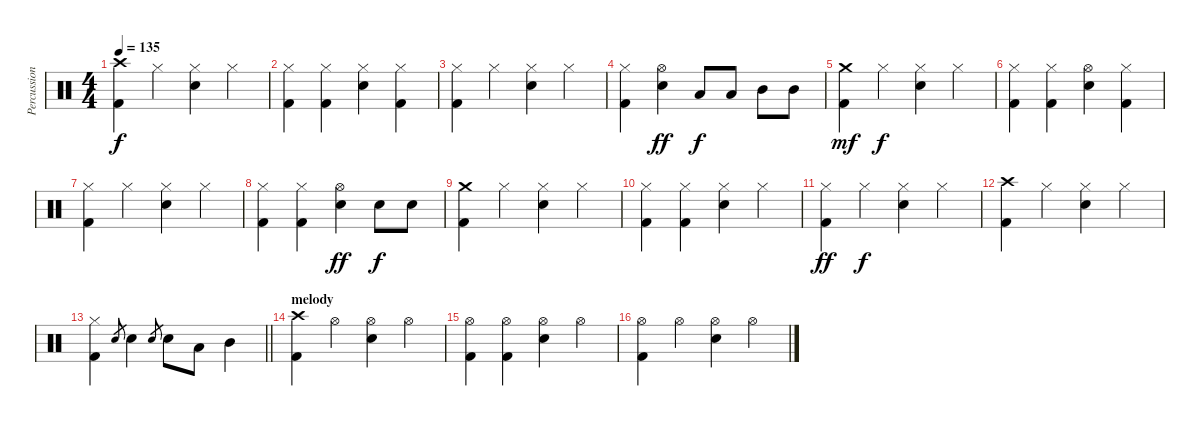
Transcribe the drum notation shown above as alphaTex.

\track ("Percussion" "Percussion") {instrument percussion}
\staff {score}
\articulation defaults
\ts (4 4)
\tempo 135
\clef neutral
\ks c
("Crash high (hit)" "Kick (hit) 2").4{dy f} "Hi-Hat (closed)".4 ("Hi-Hat (closed)" "Electric Snare (hit)").4 "Hi-Hat (closed)".4 |
("Hi-Hat (closed)" "Kick (hit) 2").4 ("Hi-Hat (closed)" "Kick (hit) 2").4 ("Hi-Hat (closed)" "Electric Snare (hit)").4 ("Hi-Hat (closed)" "Kick (hit) 2").4 |
("Hi-Hat (closed)" "Kick (hit) 2").4 "Hi-Hat (closed)".4 ("Hi-Hat (closed)" "Electric Snare (hit)").4 "Hi-Hat (closed)".4 |
("Hi-Hat (closed)" "Kick (hit) 2").4 ("Hi-Hat (open)" "Electric Snare (hit)").4{dy ff} "Low Tom (hit)".8{dy f} "Low Tom (hit)".8 "Mid Tom (hit)".8 "Mid Tom (hit)".8 |
("Crash medium (hit)" "Kick (hit) 2").4{dy mf} "Hi-Hat (closed)".4{dy f} ("Hi-Hat (closed)" "Electric Snare (hit)").4 "Hi-Hat (closed)".4 |
("Hi-Hat (closed)" "Kick (hit) 2").4 ("Hi-Hat (closed)" "Kick (hit) 2").4 ("Hi-Hat (open)" "Electric Snare (hit)").4 ("Hi-Hat (closed)" "Kick (hit) 2").4 |
("Hi-Hat (closed)" "Kick (hit) 2").4 "Hi-Hat (closed)".4 ("Hi-Hat (closed)" "Electric Snare (hit)").4 "Hi-Hat (closed)".4 |
("Hi-Hat (closed)" "Kick (hit) 2").4 ("Hi-Hat (closed)" "Kick (hit) 2").4 ("Hi-Hat (open)" "Electric Snare (hit)").4{dy ff} "Electric Snare (hit)".8{dy f} "Electric Snare (hit)".8 |
("Crash medium (hit)" "Kick (hit) 2").4 "Hi-Hat (closed)".4 ("Hi-Hat (closed)" "Electric Snare (hit)").4 "Hi-Hat (closed)".4 |
("Hi-Hat (closed)" "Kick (hit) 2").4 ("Hi-Hat (closed)" "Kick (hit) 2").4 ("Hi-Hat (closed)" "Electric Snare (hit)").4 "Hi-Hat (closed)".4 |
("Hi-Hat (closed)" "Kick (hit) 2").4{dy ff} "Hi-Hat (closed)".4{dy f} ("Hi-Hat (closed)" "Electric Snare (hit)").4 "Hi-Hat (closed)".4 |
("Crash high (hit)" "Kick (hit) 2").4 "Hi-Hat (closed)".4 ("Hi-Hat (closed)" "Electric Snare (hit)").4 "Hi-Hat (closed)".4 |
\barLineRight lightlight
("Hi-Hat (closed)" "Kick (hit) 2").4 "Electric Snare (hit)".8{gr} "Electric Snare (hit)".4 "Electric Snare (hit)".8{gr} "Electric Snare (hit)".8 "Low Tom (hit)".8 "Mid Tom (hit)".4 |
\section ("" "melody")
("Crash high (hit)" "Kick (hit) 2").4 "Hi-Hat (open)".4 ("Hi-Hat (open)" "Electric Snare (hit)").4 "Hi-Hat (open)".4 |
("Hi-Hat (open)" "Kick (hit) 2").4 ("Hi-Hat (open)" "Kick (hit) 2").4 ("Hi-Hat (open)" "Electric Snare (hit)").4 "Hi-Hat (open)".4 |
("Hi-Hat (open)" "Kick (hit) 2").4 "Hi-Hat (open)".4 ("Hi-Hat (open)" "Electric Snare (hit)").4 "Hi-Hat (open)".4
